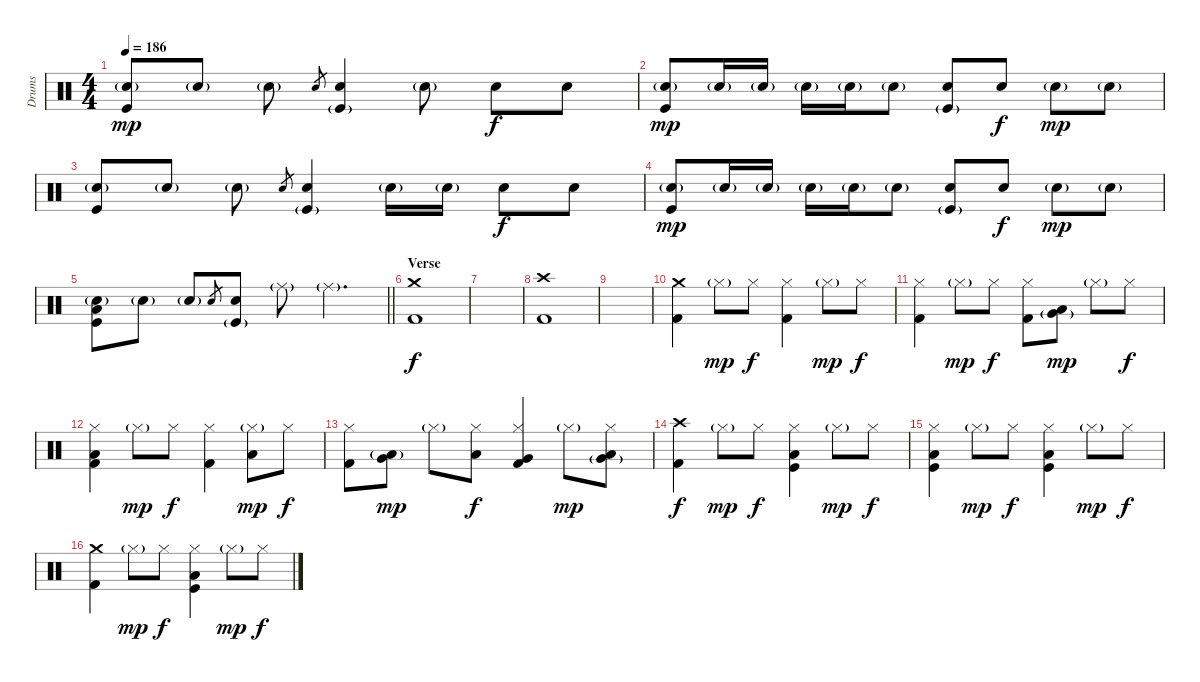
\track ("Drums" "Drums") {instrument percussion}
\staff {score}
\articulation defaults
\ts (4 4)
\tempo 186
\clef neutral
\ks c
("Electric Snare (hit)"{g} "Kick (hit)").8{dy mp} "Electric Snare (hit)"{g}.8 "Electric Snare (hit)"{g}.8 "Electric Snare (hit)".8{gr} ("Electric Snare (hit)" "Kick (hit)"{g}).4 "Electric Snare (hit)"{g}.8 "Electric Snare (hit)".8{dy f} "Electric Snare (hit)".8 |
("Electric Snare (hit)"{g} "Kick (hit)").8{dy mp} "Electric Snare (hit)"{g}.16 "Electric Snare (hit)"{g}.16 "Electric Snare (hit)"{g}.16 "Electric Snare (hit)"{g}.16 "Electric Snare (hit)"{g}.8 ("Electric Snare (hit)" "Kick (hit)"{g}).8 "Electric Snare (hit)".8{dy f} "Electric Snare (hit)"{g}.8{dy mp} "Electric Snare (hit)"{g}.8 |
("Electric Snare (hit)"{g} "Kick (hit)").8 "Electric Snare (hit)"{g}.8 "Electric Snare (hit)"{g}.8 "Electric Snare (hit)".8{gr} ("Electric Snare (hit)" "Kick (hit)"{g}).4 "Electric Snare (hit)"{g}.16 "Electric Snare (hit)"{g}.16 "Electric Snare (hit)".8{dy f} "Electric Snare (hit)".8 |
("Electric Snare (hit)"{g} "Kick (hit)").8{dy mp} "Electric Snare (hit)"{g}.16 "Electric Snare (hit)"{g}.16 "Electric Snare (hit)"{g}.16 "Electric Snare (hit)"{g}.16 "Electric Snare (hit)"{g}.8 ("Electric Snare (hit)" "Kick (hit)"{g}).8 "Electric Snare (hit)".8{dy f} "Electric Snare (hit)"{g}.8{dy mp} "Electric Snare (hit)"{g}.8 |
\barLineRight lightlight
("Electric Snare (hit)"{g} "Low Floor Tom (hit)" "Kick (hit)").8 "Electric Snare (hit)"{g}.8 "Electric Snare (hit)"{g}.8 "Electric Snare (hit)".8{gr} ("Electric Snare (hit)" "Kick (hit)"{g}).8 "Ride (middle)"{g}.8 "Ride (middle)"{g}.4{d} |
\section ("" "Verse")
("Crash medium (hit)" "Kick (hit) 2").1{dy f} |
|
("Crash high (hit)" "Kick (hit) 2").1 |
|
("Crash medium (hit)" "Kick (hit) 2").4 "Hi-Hat (closed)"{g}.8{dy mp} "Hi-Hat (closed)".8{dy f} ("Hi-Hat (closed)" "Kick (hit) 2").4 "Hi-Hat (closed)"{g}.8{dy mp} "Hi-Hat (closed)".8{dy f} |
("Hi-Hat (closed)" "Kick (hit) 2").4 "Hi-Hat (closed)"{g}.8{dy mp} "Hi-Hat (closed)".8{dy f} ("Hi-Hat (closed)" "Kick (hit) 2").8 ("Very Low Tom (hit)"{g} "Low Tom (hit)").8{dy mp} "Hi-Hat (closed)"{g}.8 "Hi-Hat (closed)".8{dy f} |
("Hi-Hat (closed)" "Low Floor Tom (hit)" "Kick (hit) 2").4 "Hi-Hat (closed)"{g}.8{dy mp} "Hi-Hat (closed)".8{dy f} ("Hi-Hat (closed)" "Kick (hit) 2").4 ("Hi-Hat (closed)"{g} "Low Floor Tom (hit)").8{dy mp} "Hi-Hat (closed)".8{dy f} |
("Hi-Hat (closed)" "Kick (hit) 2").8 ("Very Low Tom (hit)" "Low Floor Tom (hit)"{g}).8{dy mp} "Hi-Hat (closed)"{g}.8 ("Hi-Hat (closed)" "Low Floor Tom (hit)").8{dy f} ("Hi-Hat (closed)" "Very Low Tom (hit)" "Kick (hit) 2").4 "Hi-Hat (closed)"{g}.8{dy mp} ("Hi-Hat (closed)" "Very Low Tom (hit)"{g} "Low Floor Tom (hit)").8 |
("Crash high (hit)" "Kick (hit) 2").4{dy f} "Hi-Hat (closed)"{g}.8{dy mp} "Hi-Hat (closed)".8{dy f} ("Hi-Hat (closed)" "Low Floor Tom (hit)" "Kick (hit)").4 "Hi-Hat (closed)"{g}.8{dy mp} "Hi-Hat (closed)".8{dy f} |
("Hi-Hat (closed)" "Low Floor Tom (hit)" "Kick (hit)").4 "Hi-Hat (closed)"{g}.8{dy mp} "Hi-Hat (closed)".8{dy f} ("Hi-Hat (closed)" "Low Floor Tom (hit)" "Kick (hit)").4 "Hi-Hat (closed)"{g}.8{dy mp} "Hi-Hat (closed)".8{dy f} |
("Crash medium (hit)" "Kick (hit) 2").4 "Hi-Hat (closed)"{g}.8{dy mp} "Hi-Hat (closed)".8{dy f} ("Hi-Hat (closed)" "Low Floor Tom (hit)" "Kick (hit)").4 "Hi-Hat (closed)"{g}.8{dy mp} "Hi-Hat (closed)".8{dy f}
